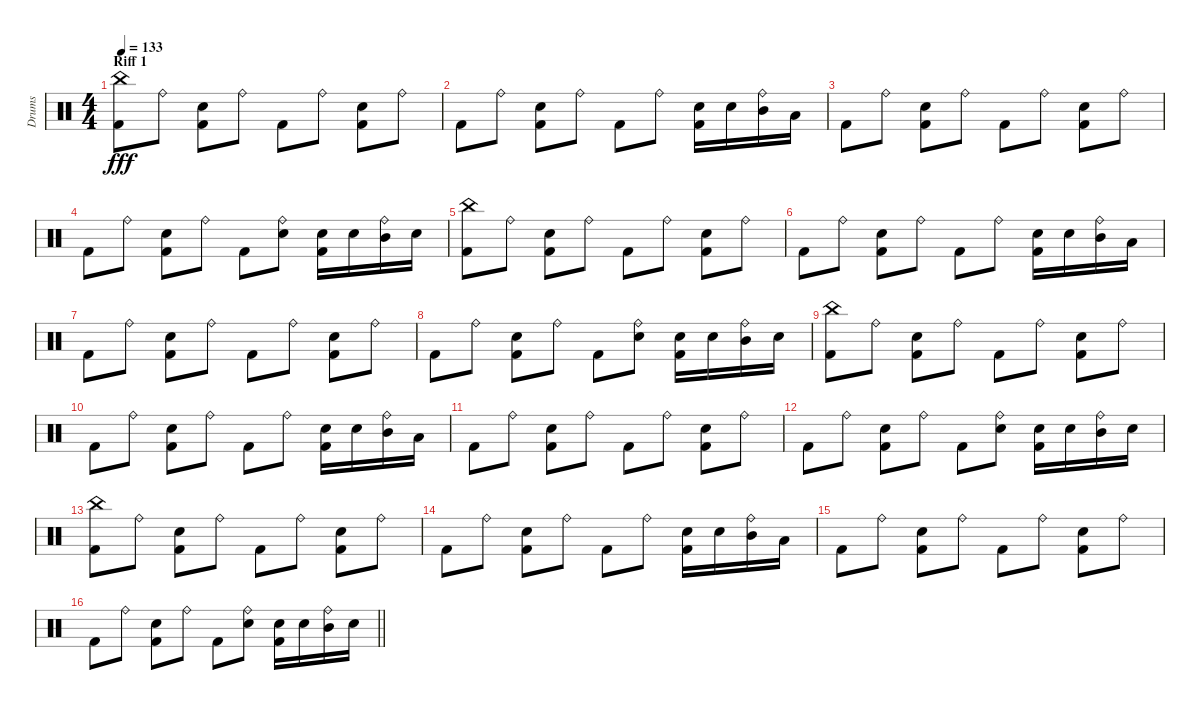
\track ("Drums" "Drums") {instrument percussion}
\staff {score}
\articulation defaults
\ts (4 4)
\section ("" "Riff 1")
\tempo 133
\clef neutral
\ks c
("Kick (hit) 2" "China (hit)").8{dy fff} "Ride (bell)".8 ("Kick (hit) 2" "Snare (hit) 2").8 "Ride (bell)".8 "Kick (hit) 2".8 "Ride (bell)".8 ("Kick (hit) 2" "Snare (hit) 2").8 "Ride (bell)".8 |
"Kick (hit) 2".8 "Ride (bell)".8 ("Kick (hit) 2" "Snare (hit) 2").8 "Ride (bell)".8 "Kick (hit) 2".8 "Ride (bell)".8 ("Kick (hit) 2" "Snare (hit) 2").16 "Snare (hit) 2".16 ("Ride (bell)" "Mid Tom (hit)").16 "Low Tom (hit)".16 |
"Kick (hit) 2".8 "Ride (bell)".8 ("Kick (hit) 2" "Snare (hit) 2").8 "Ride (bell)".8 "Kick (hit) 2".8 "Ride (bell)".8 ("Kick (hit) 2" "Snare (hit) 2").8 "Ride (bell)".8 |
"Kick (hit) 2".8 "Ride (bell)".8 ("Kick (hit) 2" "Snare (hit) 2").8 "Ride (bell)".8 "Kick (hit) 2".8 ("Snare (hit) 2" "Ride (bell)").8 ("Kick (hit) 2" "Snare (hit) 2").16 "Snare (hit) 2".16 ("Ride (bell)" "Mid Tom (hit)").16 "Snare (hit) 2".16 |
("Kick (hit) 2" "China (hit)").8 "Ride (bell)".8 ("Kick (hit) 2" "Snare (hit) 2").8 "Ride (bell)".8 "Kick (hit) 2".8 "Ride (bell)".8 ("Kick (hit) 2" "Snare (hit) 2").8 "Ride (bell)".8 |
"Kick (hit) 2".8 "Ride (bell)".8 ("Kick (hit) 2" "Snare (hit) 2").8 "Ride (bell)".8 "Kick (hit) 2".8 "Ride (bell)".8 ("Kick (hit) 2" "Snare (hit) 2").16 "Snare (hit) 2".16 ("Ride (bell)" "Mid Tom (hit)").16 "Low Tom (hit)".16 |
"Kick (hit) 2".8 "Ride (bell)".8 ("Kick (hit) 2" "Snare (hit) 2").8 "Ride (bell)".8 "Kick (hit) 2".8 "Ride (bell)".8 ("Kick (hit) 2" "Snare (hit) 2").8 "Ride (bell)".8 |
"Kick (hit) 2".8 "Ride (bell)".8 ("Kick (hit) 2" "Snare (hit) 2").8 "Ride (bell)".8 "Kick (hit) 2".8 ("Snare (hit) 2" "Ride (bell)").8 ("Kick (hit) 2" "Snare (hit) 2").16 "Snare (hit) 2".16 ("Ride (bell)" "Mid Tom (hit)").16 "Snare (hit) 2".16 |
("Kick (hit) 2" "China (hit)").8 "Ride (bell)".8 ("Kick (hit) 2" "Snare (hit) 2").8 "Ride (bell)".8 "Kick (hit) 2".8 "Ride (bell)".8 ("Kick (hit) 2" "Snare (hit) 2").8 "Ride (bell)".8 |
"Kick (hit) 2".8 "Ride (bell)".8 ("Kick (hit) 2" "Snare (hit) 2").8 "Ride (bell)".8 "Kick (hit) 2".8 "Ride (bell)".8 ("Kick (hit) 2" "Snare (hit) 2").16 "Snare (hit) 2".16 ("Ride (bell)" "Mid Tom (hit)").16 "Low Tom (hit)".16 |
"Kick (hit) 2".8 "Ride (bell)".8 ("Kick (hit) 2" "Snare (hit) 2").8 "Ride (bell)".8 "Kick (hit) 2".8 "Ride (bell)".8 ("Kick (hit) 2" "Snare (hit) 2").8 "Ride (bell)".8 |
"Kick (hit) 2".8 "Ride (bell)".8 ("Kick (hit) 2" "Snare (hit) 2").8 "Ride (bell)".8 "Kick (hit) 2".8 ("Snare (hit) 2" "Ride (bell)").8 ("Kick (hit) 2" "Snare (hit) 2").16 "Snare (hit) 2".16 ("Ride (bell)" "Mid Tom (hit)").16 "Snare (hit) 2".16 |
("Kick (hit) 2" "China (hit)").8 "Ride (bell)".8 ("Kick (hit) 2" "Snare (hit) 2").8 "Ride (bell)".8 "Kick (hit) 2".8 "Ride (bell)".8 ("Kick (hit) 2" "Snare (hit) 2").8 "Ride (bell)".8 |
"Kick (hit) 2".8 "Ride (bell)".8 ("Kick (hit) 2" "Snare (hit) 2").8 "Ride (bell)".8 "Kick (hit) 2".8 "Ride (bell)".8 ("Kick (hit) 2" "Snare (hit) 2").16 "Snare (hit) 2".16 ("Ride (bell)" "Mid Tom (hit)").16 "Low Tom (hit)".16 |
"Kick (hit) 2".8 "Ride (bell)".8 ("Kick (hit) 2" "Snare (hit) 2").8 "Ride (bell)".8 "Kick (hit) 2".8 "Ride (bell)".8 ("Kick (hit) 2" "Snare (hit) 2").8 "Ride (bell)".8 |
\barLineRight lightlight "Kick (hit) 2".8 "Ride (bell)".8
("Kick (hit) 2" "Snare (hit) 2").8 "Ride (bell)".8 "Kick (hit) 2".8 ("Snare (hit) 2" "Ride (bell)").8 ("Kick (hit) 2" "Snare (hit) 2").16 "Snare (hit) 2".16 ("Ride (bell)" "Mid Tom (hit)").16 "Snare (hit) 2".16
